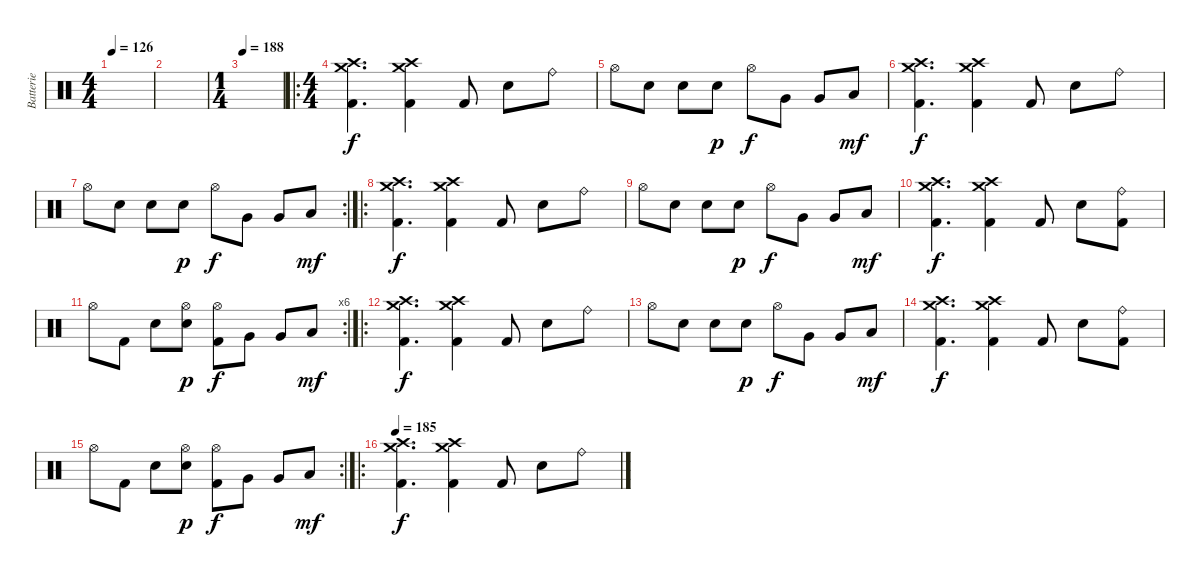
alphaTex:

\track ("Batterie" "Batterie") {instrument percussion}
\staff {score}
\articulation defaults
\ts (4 4)
\tempo 126
\clef neutral
\ks c
|
|
\ts (1 4)
\tempo 188
|
\ro
\ts (4 4)
("Crash medium (hit)" "Crash high (hit)" "Kick (hit) 2").4{d} ("Crash medium (hit)" "Crash high (hit)" "Kick (hit) 2").4 "Kick (hit) 2".8 "Electric Snare (hit)".8 "Ride (bell)".8 |
"Hi-Hat (open)".8 "Electric Snare (hit)".8 "Electric Snare (hit)".8 "Electric Snare (hit)".8{dy p} "Hi-Hat (open)".8{dy f} "Very Low Tom (hit)".8 "Very Low Tom (hit)".8 "Low Floor Tom (hit)".8{dy mf} |
("Crash medium (hit)" "Crash high (hit)" "Kick (hit) 2").4{d dy f} ("Crash medium (hit)" "Crash high (hit)" "Kick (hit) 2").4 "Kick (hit) 2".8 "Electric Snare (hit)".8 "Ride (bell)".8 |
\rc 2 "Hi-Hat (open)".8 "Electric Snare (hit)".8 "Electric Snare (hit)".8 "Electric Snare (hit)".8{dy p} "Hi-Hat (open)".8{dy f} "Very Low Tom (hit)".8 "Very Low Tom (hit)".8 "Low Floor Tom (hit)".8{dy mf}
|
\ro
("Crash medium (hit)" "Crash high (hit)" "Kick (hit) 2").4{d dy f} ("Crash medium (hit)" "Crash high (hit)" "Kick (hit) 2").4 "Kick (hit) 2".8 "Electric Snare (hit)".8 "Ride (bell)".8 |
"Hi-Hat (open)".8 "Electric Snare (hit)".8 "Electric Snare (hit)".8 "Electric Snare (hit)".8{dy p} "Hi-Hat (open)".8{dy f} "Very Low Tom (hit)".8 "Very Low Tom (hit)".8 "Low Floor Tom (hit)".8{dy mf} |
("Crash medium (hit)" "Crash high (hit)" "Kick (hit) 2").4{d dy f} ("Crash medium (hit)" "Crash high (hit)" "Kick (hit) 2").4 "Kick (hit) 2".8 "Electric Snare (hit)".8 ("Ride (bell)" "Kick (hit) 2").8 |
\rc 6 "Hi-Hat (open)".8 "Kick (hit) 2".8 "Electric Snare (hit)".8
("Hi-Hat (open)" "Electric Snare (hit)").8{dy p} ("Hi-Hat (open)" "Kick (hit) 2").8{dy f} "Very Low Tom (hit)".8 "Very Low Tom (hit)".8 "Low Floor Tom (hit)".8{dy mf} |
\ro
("Crash medium (hit)" "Crash high (hit)" "Kick (hit) 2").4{d dy f} ("Crash medium (hit)" "Crash high (hit)" "Kick (hit) 2").4 "Kick (hit) 2".8 "Electric Snare (hit)".8 "Ride (bell)".8 |
"Hi-Hat (open)".8 "Electric Snare (hit)".8 "Electric Snare (hit)".8 "Electric Snare (hit)".8{dy p} "Hi-Hat (open)".8{dy f} "Very Low Tom (hit)".8 "Very Low Tom (hit)".8 "Low Floor Tom (hit)".8{dy mf} |
("Crash medium (hit)" "Crash high (hit)" "Kick (hit) 2").4{d dy f} ("Crash medium (hit)" "Crash high (hit)" "Kick (hit) 2").4 "Kick (hit) 2".8 "Electric Snare (hit)".8 ("Ride (bell)" "Kick (hit) 2").8 |
\rc 2 "Hi-Hat (open)".8 "Kick (hit) 2".8 "Electric Snare (hit)".8
("Hi-Hat (open)" "Electric Snare (hit)").8{dy p} ("Hi-Hat (open)" "Kick (hit) 2").8{dy f} "Very Low Tom (hit)".8 "Very Low Tom (hit)".8 "Low Floor Tom (hit)".8{dy mf} |
\ro
\tempo 185
("Crash medium (hit)" "Crash high (hit)" "Kick (hit) 2").4{d dy f} ("Crash medium (hit)" "Crash high (hit)" "Kick (hit) 2").4 "Kick (hit) 2".8 "Electric Snare (hit)".8 "Ride (bell)".8
